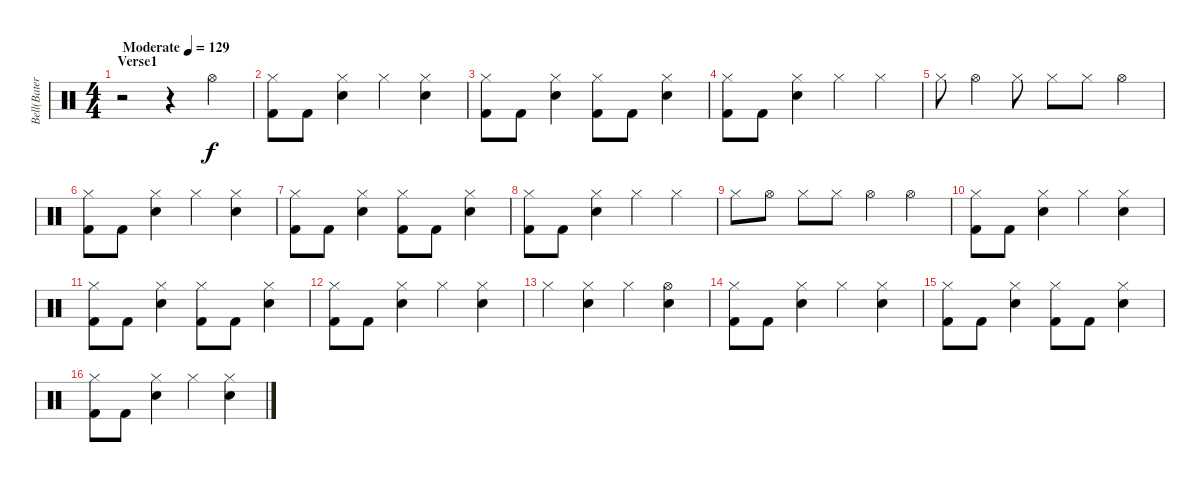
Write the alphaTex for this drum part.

\track ("Bell(Bateria)" "Bell(Bater") {instrument percussion}
\staff {score}
\articulation defaults
\ts (4 4)
\section ("" "Verse1")
\tempo (129 "Moderate")
\clef neutral
\ks c
r.2{dy f} r.4 "Hi-Hat (open)".4 |
("Hi-Hat (closed)" "Kick (hit) 2").8 "Kick (hit) 2".8 ("Hi-Hat (closed)" "Electric Snare (hit)").4 "Hi-Hat (closed)".4 ("Hi-Hat (closed)" "Electric Snare (hit)").4 |
("Hi-Hat (closed)" "Kick (hit) 2").8 "Kick (hit) 2".8 ("Hi-Hat (closed)" "Electric Snare (hit)").4 ("Hi-Hat (closed)" "Kick (hit) 2").8 "Kick (hit) 2".8 ("Hi-Hat (closed)" "Electric Snare (hit)").4 |
("Hi-Hat (closed)" "Kick (hit) 2").8 "Kick (hit) 2".8 ("Hi-Hat (closed)" "Electric Snare (hit)").4 "Hi-Hat (closed)".4 "Hi-Hat (closed)".4 |
"Hi-Hat (closed)".8 "Hi-Hat (open)".4 "Hi-Hat (closed)".8 "Hi-Hat (closed)".8 "Hi-Hat (closed)".8 "Hi-Hat (open)".4 |
("Hi-Hat (closed)" "Kick (hit) 2").8 "Kick (hit) 2".8 ("Hi-Hat (closed)" "Electric Snare (hit)").4 "Hi-Hat (closed)".4 ("Hi-Hat (closed)" "Electric Snare (hit)").4 |
("Hi-Hat (closed)" "Kick (hit) 2").8 "Kick (hit) 2".8 ("Hi-Hat (closed)" "Electric Snare (hit)").4 ("Hi-Hat (closed)" "Kick (hit) 2").8 "Kick (hit) 2".8 ("Hi-Hat (closed)" "Electric Snare (hit)").4 |
("Hi-Hat (closed)" "Kick (hit) 2").8 "Kick (hit) 2".8 ("Hi-Hat (closed)" "Electric Snare (hit)").4 "Hi-Hat (closed)".4 "Hi-Hat (closed)".4 |
"Hi-Hat (closed)".8 "Hi-Hat (open)".8 "Hi-Hat (closed)".8 "Hi-Hat (closed)".8 "Hi-Hat (open)".4 "Hi-Hat (open)".4 |
("Hi-Hat (closed)" "Kick (hit) 2").8 "Kick (hit) 2".8 ("Hi-Hat (closed)" "Electric Snare (hit)").4 "Hi-Hat (closed)".4 ("Hi-Hat (closed)" "Electric Snare (hit)").4 |
("Hi-Hat (closed)" "Kick (hit) 2").8 "Kick (hit) 2".8 ("Hi-Hat (closed)" "Electric Snare (hit)").4 ("Hi-Hat (closed)" "Kick (hit) 2").8 "Kick (hit) 2".8 ("Hi-Hat (closed)" "Electric Snare (hit)").4 |
("Hi-Hat (closed)" "Kick (hit) 2").8 "Kick (hit) 2".8 ("Hi-Hat (closed)" "Electric Snare (hit)").4 "Hi-Hat (closed)".4 ("Hi-Hat (closed)" "Electric Snare (hit)").4 |
"Hi-Hat (closed)".4 ("Hi-Hat (closed)" "Electric Snare (hit)").4 "Hi-Hat (closed)".4 ("Hi-Hat (open)" "Electric Snare (hit)").4 |
("Hi-Hat (closed)" "Kick (hit) 2").8 "Kick (hit) 2".8 ("Hi-Hat (closed)" "Electric Snare (hit)").4 "Hi-Hat (closed)".4 ("Hi-Hat (closed)" "Electric Snare (hit)").4 |
("Hi-Hat (closed)" "Kick (hit) 2").8 "Kick (hit) 2".8 ("Hi-Hat (closed)" "Electric Snare (hit)").4 ("Hi-Hat (closed)" "Kick (hit) 2").8 "Kick (hit) 2".8 ("Hi-Hat (closed)" "Electric Snare (hit)").4 |
("Hi-Hat (closed)" "Kick (hit) 2").8 "Kick (hit) 2".8 ("Hi-Hat (closed)" "Electric Snare (hit)").4 "Hi-Hat (closed)".4 ("Hi-Hat (closed)" "Electric Snare (hit)").4
